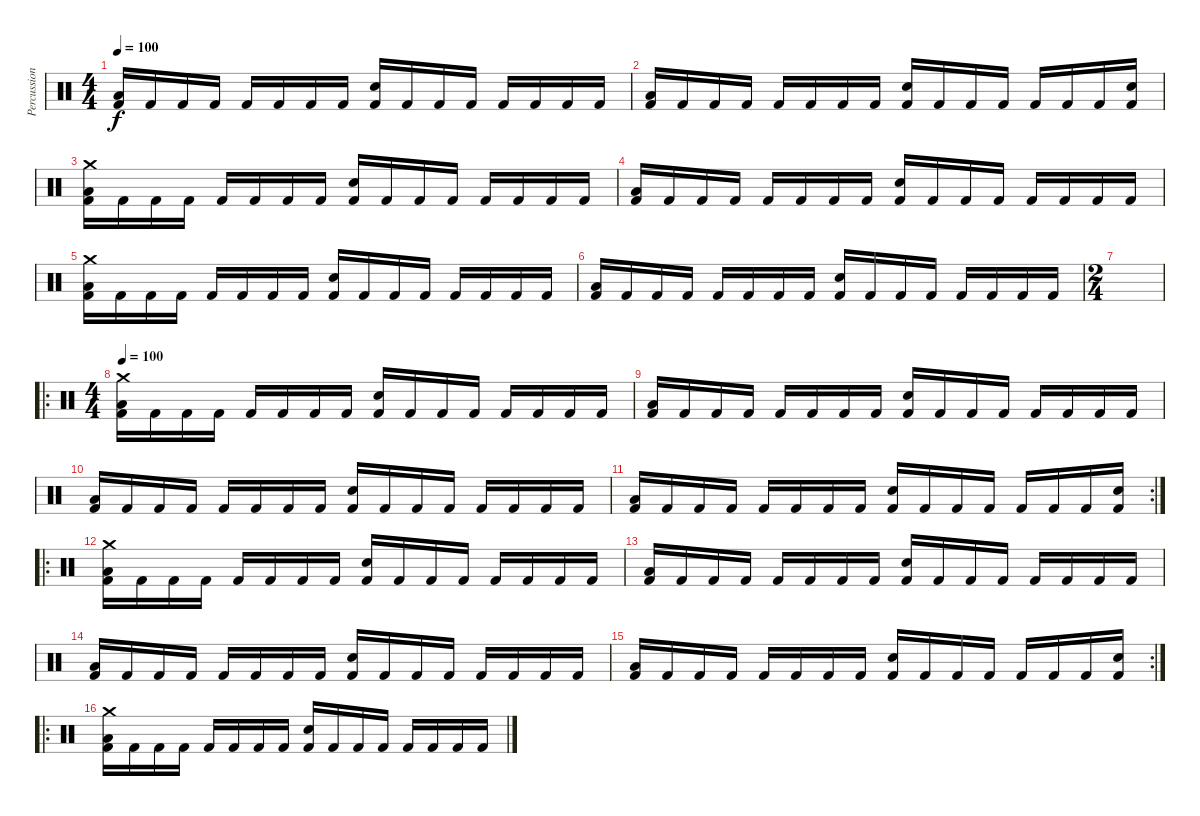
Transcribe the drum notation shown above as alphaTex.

\track ("Percussion" "Percussion") {instrument percussion}
\staff {score}
\articulation defaults
\ts (4 4)
\tempo 100
\clef neutral
\ks c
("Low Tom (hit)" "Kick (hit) 2").16{dy f} "Kick (hit) 2".16 "Kick (hit) 2".16 "Kick (hit) 2".16 "Kick (hit) 2".16 "Kick (hit) 2".16 "Kick (hit) 2".16 "Kick (hit) 2".16 ("Electric Snare (hit)" "Kick (hit) 2").16 "Kick (hit) 2".16 "Kick (hit) 2".16 "Kick (hit) 2".16 "Kick (hit) 2".16 "Kick (hit) 2".16 "Kick (hit) 2".16 "Kick (hit) 2".16 |
("Low Tom (hit)" "Kick (hit) 2").16 "Kick (hit) 2".16 "Kick (hit) 2".16 "Kick (hit) 2".16 "Kick (hit) 2".16 "Kick (hit) 2".16 "Kick (hit) 2".16 "Kick (hit) 2".16 ("Electric Snare (hit)" "Kick (hit) 2").16 "Kick (hit) 2".16 "Kick (hit) 2".16 "Kick (hit) 2".16 "Kick (hit) 2".16 "Kick (hit) 2".16 "Kick (hit) 2".16 ("Electric Snare (hit)" "Kick (hit) 2").16 |
("Crash medium (hit)" "Low Tom (hit)" "Kick (hit) 2").16 "Kick (hit) 2".16 "Kick (hit) 2".16 "Kick (hit) 2".16 "Kick (hit) 2".16 "Kick (hit) 2".16 "Kick (hit) 2".16 "Kick (hit) 2".16 ("Electric Snare (hit)" "Kick (hit) 2").16 "Kick (hit) 2".16 "Kick (hit) 2".16 "Kick (hit) 2".16 "Kick (hit) 2".16 "Kick (hit) 2".16 "Kick (hit) 2".16 "Kick (hit) 2".16 |
("Low Tom (hit)" "Kick (hit) 2").16 "Kick (hit) 2".16 "Kick (hit) 2".16 "Kick (hit) 2".16 "Kick (hit) 2".16 "Kick (hit) 2".16 "Kick (hit) 2".16 "Kick (hit) 2".16 ("Electric Snare (hit)" "Kick (hit) 2").16 "Kick (hit) 2".16 "Kick (hit) 2".16 "Kick (hit) 2".16 "Kick (hit) 2".16 "Kick (hit) 2".16 "Kick (hit) 2".16 "Kick (hit) 2".16 |
("Crash medium (hit)" "Low Tom (hit)" "Kick (hit) 2").16 "Kick (hit) 2".16 "Kick (hit) 2".16 "Kick (hit) 2".16 "Kick (hit) 2".16 "Kick (hit) 2".16 "Kick (hit) 2".16 "Kick (hit) 2".16 ("Electric Snare (hit)" "Kick (hit) 2").16 "Kick (hit) 2".16 "Kick (hit) 2".16 "Kick (hit) 2".16 "Kick (hit) 2".16 "Kick (hit) 2".16 "Kick (hit) 2".16 "Kick (hit) 2".16 |
("Low Tom (hit)" "Kick (hit) 2").16 "Kick (hit) 2".16 "Kick (hit) 2".16 "Kick (hit) 2".16 "Kick (hit) 2".16 "Kick (hit) 2".16 "Kick (hit) 2".16 "Kick (hit) 2".16 ("Electric Snare (hit)" "Kick (hit) 2").16 "Kick (hit) 2".16 "Kick (hit) 2".16 "Kick (hit) 2".16 "Kick (hit) 2".16 "Kick (hit) 2".16 "Kick (hit) 2".16 "Kick (hit) 2".16 |
\ts (2 4)
|
\ro
\ts (4 4)
\tempo 100
("Crash medium (hit)" "Low Tom (hit)" "Kick (hit) 2").16 "Kick (hit) 2".16 "Kick (hit) 2".16 "Kick (hit) 2".16 "Kick (hit) 2".16 "Kick (hit) 2".16 "Kick (hit) 2".16 "Kick (hit) 2".16 ("Electric Snare (hit)" "Kick (hit) 2").16 "Kick (hit) 2".16 "Kick (hit) 2".16 "Kick (hit) 2".16 "Kick (hit) 2".16 "Kick (hit) 2".16 "Kick (hit) 2".16 "Kick (hit) 2".16 |
("Low Tom (hit)" "Kick (hit) 2").16 "Kick (hit) 2".16 "Kick (hit) 2".16 "Kick (hit) 2".16 "Kick (hit) 2".16 "Kick (hit) 2".16 "Kick (hit) 2".16 "Kick (hit) 2".16 ("Electric Snare (hit)" "Kick (hit) 2").16 "Kick (hit) 2".16 "Kick (hit) 2".16 "Kick (hit) 2".16 "Kick (hit) 2".16 "Kick (hit) 2".16 "Kick (hit) 2".16 "Kick (hit) 2".16 |
("Low Tom (hit)" "Kick (hit) 2").16 "Kick (hit) 2".16 "Kick (hit) 2".16 "Kick (hit) 2".16 "Kick (hit) 2".16 "Kick (hit) 2".16 "Kick (hit) 2".16 "Kick (hit) 2".16 ("Electric Snare (hit)" "Kick (hit) 2").16 "Kick (hit) 2".16 "Kick (hit) 2".16 "Kick (hit) 2".16 "Kick (hit) 2".16 "Kick (hit) 2".16 "Kick (hit) 2".16 "Kick (hit) 2".16 |
\rc 2
("Low Tom (hit)" "Kick (hit) 2").16 "Kick (hit) 2".16 "Kick (hit) 2".16 "Kick (hit) 2".16 "Kick (hit) 2".16 "Kick (hit) 2".16 "Kick (hit) 2".16 "Kick (hit) 2".16 ("Electric Snare (hit)" "Kick (hit) 2").16 "Kick (hit) 2".16 "Kick (hit) 2".16 "Kick (hit) 2".16 "Kick (hit) 2".16 "Kick (hit) 2".16 "Kick (hit) 2".16 ("Electric Snare (hit)" "Kick (hit) 2").16 |
\ro
("Crash medium (hit)" "Low Tom (hit)" "Kick (hit) 2").16 "Kick (hit) 2".16 "Kick (hit) 2".16 "Kick (hit) 2".16 "Kick (hit) 2".16 "Kick (hit) 2".16 "Kick (hit) 2".16 "Kick (hit) 2".16 ("Electric Snare (hit)" "Kick (hit) 2").16 "Kick (hit) 2".16 "Kick (hit) 2".16 "Kick (hit) 2".16 "Kick (hit) 2".16 "Kick (hit) 2".16 "Kick (hit) 2".16 "Kick (hit) 2".16 |
("Low Tom (hit)" "Kick (hit) 2").16 "Kick (hit) 2".16 "Kick (hit) 2".16 "Kick (hit) 2".16 "Kick (hit) 2".16 "Kick (hit) 2".16 "Kick (hit) 2".16 "Kick (hit) 2".16 ("Electric Snare (hit)" "Kick (hit) 2").16 "Kick (hit) 2".16 "Kick (hit) 2".16 "Kick (hit) 2".16 "Kick (hit) 2".16 "Kick (hit) 2".16 "Kick (hit) 2".16 "Kick (hit) 2".16 |
("Low Tom (hit)" "Kick (hit) 2").16 "Kick (hit) 2".16 "Kick (hit) 2".16 "Kick (hit) 2".16 "Kick (hit) 2".16 "Kick (hit) 2".16 "Kick (hit) 2".16 "Kick (hit) 2".16 ("Electric Snare (hit)" "Kick (hit) 2").16 "Kick (hit) 2".16 "Kick (hit) 2".16 "Kick (hit) 2".16 "Kick (hit) 2".16 "Kick (hit) 2".16 "Kick (hit) 2".16 "Kick (hit) 2".16 |
\rc 2
("Low Tom (hit)" "Kick (hit) 2").16 "Kick (hit) 2".16 "Kick (hit) 2".16 "Kick (hit) 2".16 "Kick (hit) 2".16 "Kick (hit) 2".16 "Kick (hit) 2".16 "Kick (hit) 2".16 ("Electric Snare (hit)" "Kick (hit) 2").16 "Kick (hit) 2".16 "Kick (hit) 2".16 "Kick (hit) 2".16 "Kick (hit) 2".16 "Kick (hit) 2".16 "Kick (hit) 2".16 ("Electric Snare (hit)" "Kick (hit) 2").16 |
\ro
("Crash medium (hit)" "Low Tom (hit)" "Kick (hit) 2").16 "Kick (hit) 2".16 "Kick (hit) 2".16 "Kick (hit) 2".16 "Kick (hit) 2".16 "Kick (hit) 2".16 "Kick (hit) 2".16 "Kick (hit) 2".16 ("Electric Snare (hit)" "Kick (hit) 2").16 "Kick (hit) 2".16 "Kick (hit) 2".16 "Kick (hit) 2".16 "Kick (hit) 2".16 "Kick (hit) 2".16 "Kick (hit) 2".16 "Kick (hit) 2".16
